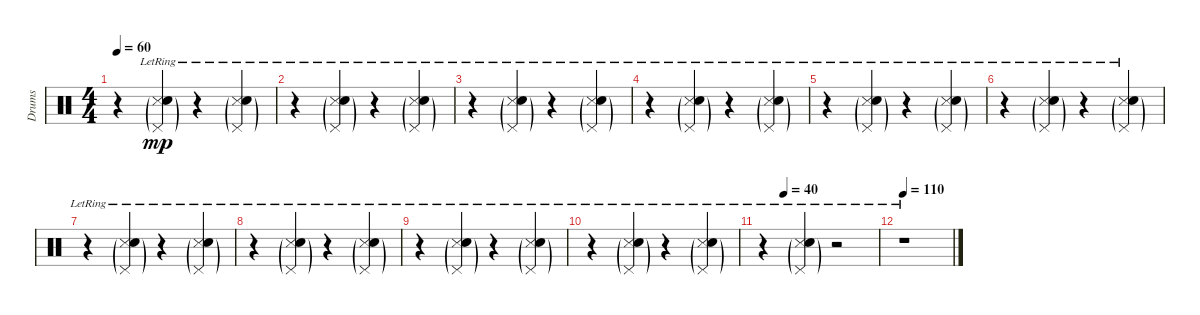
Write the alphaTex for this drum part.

\track ("Drums" "Drums") {instrument percussion}
\staff {score}
\articulation defaults
\ts (4 4)
\tempo 60
\clef neutral
\ks c
r.4{dy mp} ("Pedal Hi-Hat (hit)"{g} "Snare (side stick) 3"{lr} "Electric Snare (hit)"{g}).4 r.4 ("Pedal Hi-Hat (hit)"{g} "Snare (side stick) 3"{lr} "Electric Snare (hit)"{g}).4 |
r.4 ("Pedal Hi-Hat (hit)"{g} "Snare (side stick) 3"{lr} "Electric Snare (hit)"{g}).4 r.4 ("Pedal Hi-Hat (hit)"{g} "Snare (side stick) 3"{lr} "Electric Snare (hit)"{g}).4 |
r.4 ("Pedal Hi-Hat (hit)"{g} "Snare (side stick) 3"{lr} "Electric Snare (hit)"{g}).4 r.4 ("Pedal Hi-Hat (hit)"{g} "Snare (side stick) 3"{lr} "Electric Snare (hit)"{g}).4 |
r.4 ("Pedal Hi-Hat (hit)"{g} "Snare (side stick) 3"{lr} "Electric Snare (hit)"{g}).4 r.4 ("Pedal Hi-Hat (hit)"{g} "Snare (side stick) 3"{lr} "Electric Snare (hit)"{g}).4 |
r.4 ("Pedal Hi-Hat (hit)"{g} "Snare (side stick) 3"{lr} "Electric Snare (hit)"{g}).4 r.4 ("Pedal Hi-Hat (hit)"{g} "Snare (side stick) 3"{lr} "Electric Snare (hit)"{g}).4 |
r.4 ("Pedal Hi-Hat (hit)"{g} "Snare (side stick) 3"{lr} "Electric Snare (hit)"{g}).4 r.4 ("Pedal Hi-Hat (hit)"{g} "Snare (side stick) 3"{lr} "Electric Snare (hit)"{g}).4 |
r.4 ("Pedal Hi-Hat (hit)"{g} "Snare (side stick) 3"{lr} "Electric Snare (hit)"{g}).4 r.4 ("Pedal Hi-Hat (hit)"{g} "Snare (side stick) 3"{lr} "Electric Snare (hit)"{g}).4 |
r.4 ("Pedal Hi-Hat (hit)"{g} "Snare (side stick) 3"{lr} "Electric Snare (hit)"{g}).4 r.4 ("Pedal Hi-Hat (hit)"{g} "Snare (side stick) 3"{lr} "Electric Snare (hit)"{g}).4 |
r.4 ("Pedal Hi-Hat (hit)"{g} "Snare (side stick) 3"{lr} "Electric Snare (hit)"{g}).4 r.4 ("Pedal Hi-Hat (hit)"{g} "Snare (side stick) 3"{lr} "Electric Snare (hit)"{g}).4 |
r.4 ("Pedal Hi-Hat (hit)"{g} "Snare (side stick) 3"{lr} "Electric Snare (hit)"{g}).4 r.4 ("Pedal Hi-Hat (hit)"{g} "Snare (side stick) 3"{lr} "Electric Snare (hit)"{g}).4 |
\tempo (40 0.1875)
r.4 ("Pedal Hi-Hat (hit)"{g} "Snare (side stick) 3"{lr} "Electric Snare (hit)"{g}).4 r.2 |
\tempo 110
r.1
